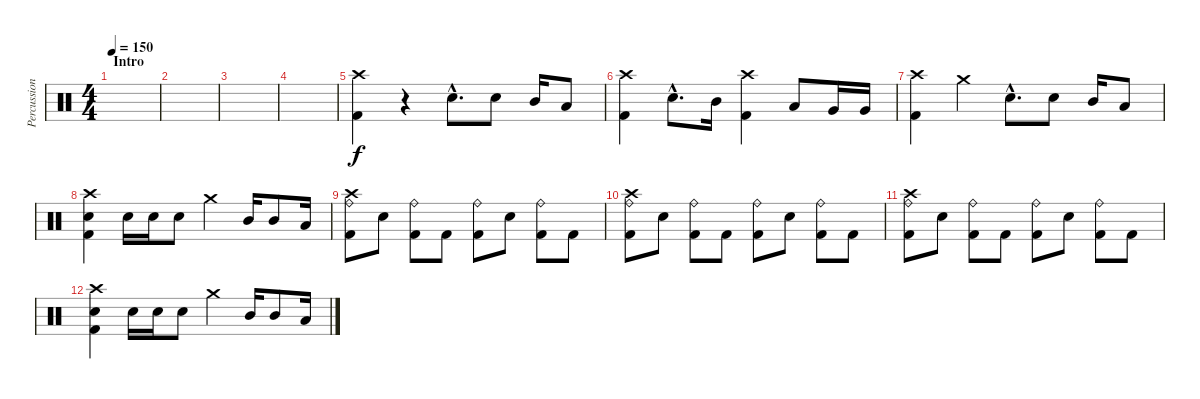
\track ("Percussioni" "Percussion") {instrument percussion}
\staff {score}
\articulation defaults
\ts (4 4)
\section ("" "Intro")
\tempo 150
\clef neutral
\ks c
|
|
|
|
("Crash high (hit)" "Kick (hit) 2").4 r.4 "Snare (hit) 2"{hac}.8{d} "Snare (hit) 2".8 "Mid Tom (hit)".16 "Low Tom (hit)".8 |
("Crash high (hit)" "Kick (hit) 2").4 "Snare (hit) 2"{hac}.8{d} "Mid Tom (hit)".16 ("Crash high (hit)" "Kick (hit) 2").4 "Low Tom (hit)".8 "Very Low Tom (hit)".16 "Very Low Tom (hit)".16 |
("Crash high (hit)" "Kick (hit) 2").4 "Crash medium (hit)".4 "Snare (hit) 2"{hac}.8{d} "Snare (hit) 2".8 "Mid Tom (hit)".16 "Low Tom (hit)".8 |
("Crash high (hit)" "Snare (hit) 2" "Kick (hit) 2").4 "Snare (hit) 2".16 "Snare (hit) 2".16 "Snare (hit) 2".8 "Crash medium (hit)".4 "Mid Tom (hit)".16 "Mid Tom (hit)".8 "Low Tom (hit)".16 |
("Crash high (hit)" "Kick (hit) 2" "Ride (bell)").8 "Snare (hit) 2".8 ("Kick (hit) 2" "Ride (bell)").8 "Kick (hit) 2".8 ("Kick (hit) 2" "Ride (bell)").8 "Snare (hit) 2".8 ("Kick (hit) 2" "Ride (bell)").8 "Kick (hit) 2".8 |
("Crash high (hit)" "Kick (hit) 2" "Ride (bell)").8 "Snare (hit) 2".8 ("Kick (hit) 2" "Ride (bell)").8 "Kick (hit) 2".8 ("Kick (hit) 2" "Ride (bell)").8 "Snare (hit) 2".8 ("Kick (hit) 2" "Ride (bell)").8 "Kick (hit) 2".8 |
("Crash high (hit)" "Kick (hit) 2" "Ride (bell)").8 "Snare (hit) 2".8 ("Kick (hit) 2" "Ride (bell)").8 "Kick (hit) 2".8 ("Kick (hit) 2" "Ride (bell)").8 "Snare (hit) 2".8 ("Kick (hit) 2" "Ride (bell)").8 "Kick (hit) 2".8 |
("Crash high (hit)" "Snare (hit) 2" "Kick (hit) 2").4 "Snare (hit) 2".16 "Snare (hit) 2".16 "Snare (hit) 2".8 "Crash medium (hit)".4 "Mid Tom (hit)".16 "Mid Tom (hit)".8 "Low Tom (hit)".16
